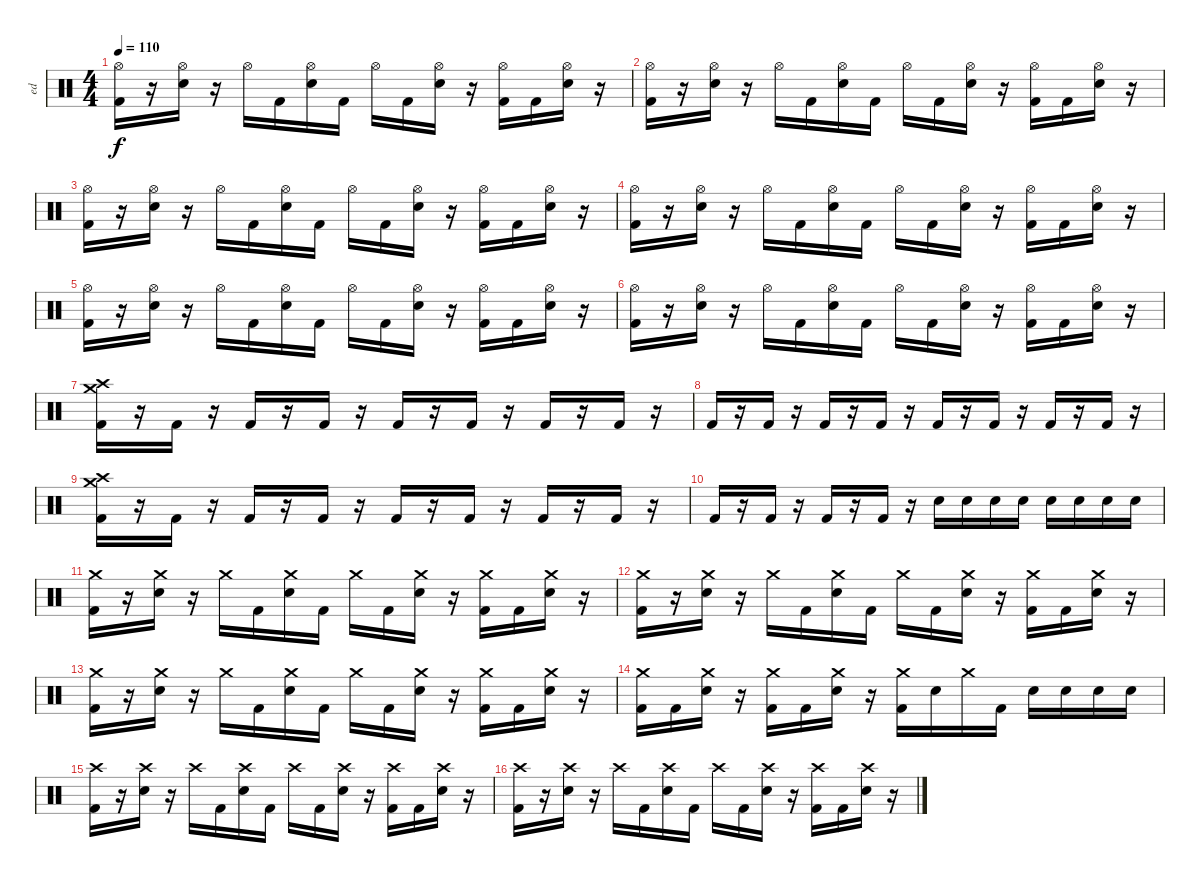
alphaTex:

\track ("ed" "ed") {instrument percussion}
\staff {score}
\articulation defaults
\ts (4 4)
\tempo 110
\clef neutral
\ks c
("Hi-Hat (open)" "Kick (hit) 2").16{dy f} r.16 ("Hi-Hat (open)" "Electric Snare (hit)").16 r.16 "Hi-Hat (open)".16 "Kick (hit) 2".16 ("Hi-Hat (open)" "Electric Snare (hit)").16 "Kick (hit) 2".16 "Hi-Hat (open)".16 "Kick (hit) 2".16 ("Hi-Hat (open)" "Electric Snare (hit)").16 r.16 ("Hi-Hat (open)" "Kick (hit) 2").16 "Kick (hit) 2".16 ("Hi-Hat (open)" "Electric Snare (hit)").16 r.16 |
("Hi-Hat (open)" "Kick (hit) 2").16 r.16 ("Hi-Hat (open)" "Electric Snare (hit)").16 r.16 "Hi-Hat (open)".16 "Kick (hit) 2".16 ("Hi-Hat (open)" "Electric Snare (hit)").16 "Kick (hit) 2".16 "Hi-Hat (open)".16 "Kick (hit) 2".16 ("Hi-Hat (open)" "Electric Snare (hit)").16 r.16 ("Hi-Hat (open)" "Kick (hit) 2").16 "Kick (hit) 2".16 ("Hi-Hat (open)" "Electric Snare (hit)").16 r.16 |
("Hi-Hat (open)" "Kick (hit) 2").16 r.16 ("Hi-Hat (open)" "Electric Snare (hit)").16 r.16 "Hi-Hat (open)".16 "Kick (hit) 2".16 ("Hi-Hat (open)" "Electric Snare (hit)").16 "Kick (hit) 2".16 "Hi-Hat (open)".16 "Kick (hit) 2".16 ("Hi-Hat (open)" "Electric Snare (hit)").16 r.16 ("Hi-Hat (open)" "Kick (hit) 2").16 "Kick (hit) 2".16 ("Hi-Hat (open)" "Electric Snare (hit)").16 r.16 |
("Hi-Hat (open)" "Kick (hit) 2").16 r.16 ("Hi-Hat (open)" "Electric Snare (hit)").16 r.16 "Hi-Hat (open)".16 "Kick (hit) 2".16 ("Hi-Hat (open)" "Electric Snare (hit)").16 "Kick (hit) 2".16 "Hi-Hat (open)".16 "Kick (hit) 2".16 ("Hi-Hat (open)" "Electric Snare (hit)").16 r.16 ("Hi-Hat (open)" "Kick (hit) 2").16 "Kick (hit) 2".16 ("Hi-Hat (open)" "Electric Snare (hit)").16 r.16 |
("Hi-Hat (open)" "Kick (hit) 2").16 r.16 ("Hi-Hat (open)" "Electric Snare (hit)").16 r.16 "Hi-Hat (open)".16 "Kick (hit) 2".16 ("Hi-Hat (open)" "Electric Snare (hit)").16 "Kick (hit) 2".16 "Hi-Hat (open)".16 "Kick (hit) 2".16 ("Hi-Hat (open)" "Electric Snare (hit)").16 r.16 ("Hi-Hat (open)" "Kick (hit) 2").16 "Kick (hit) 2".16 ("Hi-Hat (open)" "Electric Snare (hit)").16 r.16 |
("Hi-Hat (open)" "Kick (hit) 2").16 r.16 ("Hi-Hat (open)" "Electric Snare (hit)").16 r.16 "Hi-Hat (open)".16 "Kick (hit) 2".16 ("Hi-Hat (open)" "Electric Snare (hit)").16 "Kick (hit) 2".16 "Hi-Hat (open)".16 "Kick (hit) 2".16 ("Hi-Hat (open)" "Electric Snare (hit)").16 r.16 ("Hi-Hat (open)" "Kick (hit) 2").16 "Kick (hit) 2".16 ("Hi-Hat (open)" "Electric Snare (hit)").16 r.16 |
("Crash high (hit)" "Crash medium (hit)" "Kick (hit) 2").16 r.16 "Kick (hit) 2".16 r.16 "Kick (hit) 2".16 r.16 "Kick (hit) 2".16 r.16 "Kick (hit) 2".16 r.16 "Kick (hit) 2".16 r.16 "Kick (hit) 2".16 r.16 "Kick (hit) 2".16 r.16 |
"Kick (hit) 2".16 r.16 "Kick (hit) 2".16 r.16 "Kick (hit) 2".16 r.16 "Kick (hit) 2".16 r.16 "Kick (hit) 2".16 r.16 "Kick (hit) 2".16 r.16 "Kick (hit) 2".16 r.16 "Kick (hit) 2".16 r.16 |
("Crash high (hit)" "Crash medium (hit)" "Kick (hit) 2").16 r.16 "Kick (hit) 2".16 r.16 "Kick (hit) 2".16 r.16 "Kick (hit) 2".16 r.16 "Kick (hit) 2".16 r.16 "Kick (hit) 2".16 r.16 "Kick (hit) 2".16 r.16 "Kick (hit) 2".16 r.16 |
"Kick (hit) 2".16 r.16 "Kick (hit) 2".16 r.16 "Kick (hit) 2".16 r.16 "Kick (hit) 2".16 r.16 "Electric Snare (hit)".16 "Electric Snare (hit)".16 "Electric Snare (hit)".16 "Electric Snare (hit)".16 "Electric Snare (hit)".16 "Electric Snare (hit)".16 "Electric Snare (hit)".16 "Electric Snare (hit)".16 |
("Crash medium (hit)" "Kick (hit) 2").16 r.16 ("Crash medium (hit)" "Electric Snare (hit)").16 r.16 "Crash medium (hit)".16 "Kick (hit) 2".16 ("Crash medium (hit)" "Electric Snare (hit)").16 "Kick (hit) 2".16 "Crash medium (hit)".16 "Kick (hit) 2".16 ("Crash medium (hit)" "Electric Snare (hit)").16 r.16 ("Crash medium (hit)" "Kick (hit) 2").16 "Kick (hit) 2".16 ("Crash medium (hit)" "Electric Snare (hit)").16 r.16 |
("Crash medium (hit)" "Kick (hit) 2").16 r.16 ("Crash medium (hit)" "Electric Snare (hit)").16 r.16 "Crash medium (hit)".16 "Kick (hit) 2".16 ("Crash medium (hit)" "Electric Snare (hit)").16 "Kick (hit) 2".16 "Crash medium (hit)".16 "Kick (hit) 2".16 ("Crash medium (hit)" "Electric Snare (hit)").16 r.16 ("Crash medium (hit)" "Kick (hit) 2").16 "Kick (hit) 2".16 ("Crash medium (hit)" "Electric Snare (hit)").16 r.16 |
("Crash medium (hit)" "Kick (hit) 2").16 r.16 ("Crash medium (hit)" "Electric Snare (hit)").16 r.16 "Crash medium (hit)".16 "Kick (hit) 2".16 ("Crash medium (hit)" "Electric Snare (hit)").16 "Kick (hit) 2".16 "Crash medium (hit)".16 "Kick (hit) 2".16 ("Crash medium (hit)" "Electric Snare (hit)").16 r.16 ("Crash medium (hit)" "Kick (hit) 2").16 "Kick (hit) 2".16 ("Crash medium (hit)" "Electric Snare (hit)").16 r.16 |
("Crash medium (hit)" "Kick (hit) 2").16 "Kick (hit) 2".16 ("Crash medium (hit)" "Electric Snare (hit)").16 r.16 ("Crash medium (hit)" "Kick (hit) 2").16 "Kick (hit) 2".16 ("Crash medium (hit)" "Electric Snare (hit)").16 r.16 ("Crash medium (hit)" "Kick (hit) 2").16 "Electric Snare (hit)".16 "Crash medium (hit)".16 "Kick (hit) 2".16 "Electric Snare (hit)".16 "Electric Snare (hit)".16 "Electric Snare (hit)".16 "Electric Snare (hit)".16 |
("Crash high (hit)" "Kick (hit) 2").16 r.16 ("Crash high (hit)" "Electric Snare (hit)").16 r.16 "Crash high (hit)".16 "Kick (hit) 2".16 ("Crash high (hit)" "Electric Snare (hit)").16 "Kick (hit) 2".16 "Crash high (hit)".16 "Kick (hit) 2".16 ("Crash high (hit)" "Electric Snare (hit)").16 r.16 ("Crash high (hit)" "Kick (hit) 2").16 "Kick (hit) 2".16 ("Crash high (hit)" "Electric Snare (hit)").16 r.16 |
("Crash high (hit)" "Kick (hit) 2").16 r.16 ("Crash high (hit)" "Electric Snare (hit)").16 r.16 "Crash high (hit)".16 "Kick (hit) 2".16 ("Crash high (hit)" "Electric Snare (hit)").16 "Kick (hit) 2".16 "Crash high (hit)".16 "Kick (hit) 2".16 ("Crash high (hit)" "Electric Snare (hit)").16 r.16 ("Crash high (hit)" "Kick (hit) 2").16 "Kick (hit) 2".16 ("Crash high (hit)" "Electric Snare (hit)").16 r.16
